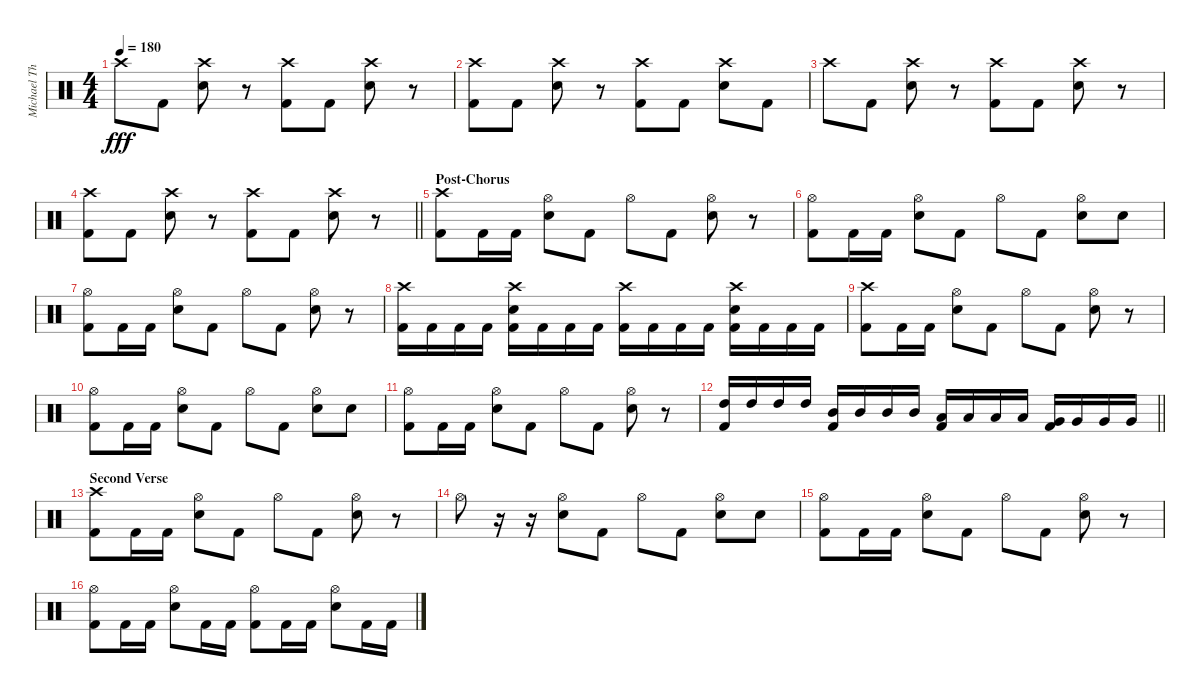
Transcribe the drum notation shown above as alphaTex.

\track ("Michael Thomas" "Michael Th") {instrument percussion}
\staff {score}
\articulation defaults
\ts (4 4)
\tempo 180
\clef neutral
\ks c "Crash high (hit)".8{dy fff} "Kick (hit) 2".8
("Crash high (hit)" "Electric Snare (hit)").8 r.8 ("Crash high (hit)" "Kick (hit) 2").8 "Kick (hit) 2".8 ("Crash high (hit)" "Electric Snare (hit)").8 r.8 |
("Crash high (hit)" "Kick (hit) 2").8 "Kick (hit) 2".8 ("Crash high (hit)" "Electric Snare (hit)").8 r.8 ("Crash high (hit)" "Kick (hit) 2").8 "Kick (hit) 2".8 ("Crash high (hit)" "Electric Snare (hit)").8 "Kick (hit) 2".8 |
"Crash high (hit)".8 "Kick (hit) 2".8 ("Crash high (hit)" "Electric Snare (hit)").8 r.8 ("Crash high (hit)" "Kick (hit) 2").8 "Kick (hit) 2".8 ("Crash high (hit)" "Electric Snare (hit)").8 r.8 |
\barLineRight lightlight
("Crash high (hit)" "Kick (hit) 2").8 "Kick (hit) 2".8 ("Crash high (hit)" "Electric Snare (hit)").8 r.8 ("Crash high (hit)" "Kick (hit) 2").8 "Kick (hit) 2".8 ("Crash high (hit)" "Electric Snare (hit)").8 r.8 |
\section ("" "Post-Chorus")
("Crash high (hit)" "Kick (hit) 2").8 "Kick (hit) 2".16 "Kick (hit) 2".16 ("Hi-Hat (open)" "Electric Snare (hit)").8 "Kick (hit) 2".8 "Hi-Hat (open)".8 "Kick (hit) 2".8 ("Hi-Hat (open)" "Electric Snare (hit)").8 r.8 |
("Hi-Hat (open)" "Kick (hit) 2").8 "Kick (hit) 2".16 "Kick (hit) 2".16 ("Hi-Hat (open)" "Electric Snare (hit)").8 "Kick (hit) 2".8 "Hi-Hat (open)".8 "Kick (hit) 2".8 ("Hi-Hat (open)" "Electric Snare (hit)").8 "Electric Snare (hit)".8 |
("Hi-Hat (open)" "Kick (hit) 2").8 "Kick (hit) 2".16 "Kick (hit) 2".16 ("Hi-Hat (open)" "Electric Snare (hit)").8 "Kick (hit) 2".8 "Hi-Hat (open)".8 "Kick (hit) 2".8 ("Hi-Hat (open)" "Electric Snare (hit)").8 r.8 |
("Crash high (hit)" "Kick (hit) 2").16 "Kick (hit) 2".16 "Kick (hit) 2".16 "Kick (hit) 2".16 ("Crash high (hit)" "Electric Snare (hit)" "Kick (hit) 2").16 "Kick (hit) 2".16 "Kick (hit) 2".16 "Kick (hit) 2".16 ("Crash high (hit)" "Kick (hit) 2").16 "Kick (hit) 2".16 "Kick (hit) 2".16 "Kick (hit) 2".16 ("Crash high (hit)" "Electric Snare (hit)" "Kick (hit) 2").16 "Kick (hit) 2".16 "Kick (hit) 2".16 "Kick (hit) 2".16 |
("Crash high (hit)" "Kick (hit) 2").8 "Kick (hit) 2".16 "Kick (hit) 2".16 ("Hi-Hat (open)" "Electric Snare (hit)").8 "Kick (hit) 2".8 "Hi-Hat (open)".8 "Kick (hit) 2".8 ("Hi-Hat (open)" "Electric Snare (hit)").8 r.8 |
("Hi-Hat (open)" "Kick (hit) 2").8 "Kick (hit) 2".16 "Kick (hit) 2".16 ("Hi-Hat (open)" "Electric Snare (hit)").8 "Kick (hit) 2".8 "Hi-Hat (open)".8 "Kick (hit) 2".8 ("Hi-Hat (open)" "Electric Snare (hit)").8 "Electric Snare (hit)".8 |
("Hi-Hat (open)" "Kick (hit) 2").8 "Kick (hit) 2".16 "Kick (hit) 2".16 ("Hi-Hat (open)" "Electric Snare (hit)").8 "Kick (hit) 2".8 "Hi-Hat (open)".8 "Kick (hit) 2".8 ("Hi-Hat (open)" "Electric Snare (hit)").8 r.8 |
\barLineRight lightlight
("High Tom (hit)" "Kick (hit) 2").16 "High Tom (hit)".16 "High Tom (hit)".16 "High Tom (hit)".16 ("Mid Tom (hit)" "Kick (hit) 2").16 "Mid Tom (hit)".16 "Mid Tom (hit)".16 "Mid Tom (hit)".16 ("Low Tom (hit)" "Kick (hit) 2").16 "Low Tom (hit)".16 "Low Tom (hit)".16 "Low Tom (hit)".16 ("Very Low Tom (hit)" "Kick (hit) 2").16 "Very Low Tom (hit)".16 "Very Low Tom (hit)".16 "Very Low Tom (hit)".16 |
\section ("" "Second Verse")
("Crash high (hit)" "Kick (hit) 2").8 "Kick (hit) 2".16 "Kick (hit) 2".16 ("Hi-Hat (open)" "Electric Snare (hit)").8 "Kick (hit) 2".8 "Hi-Hat (open)".8 "Kick (hit) 2".8 ("Hi-Hat (open)" "Electric Snare (hit)").8 r.8 |
"Hi-Hat (open)".8 r.16 r.16 ("Hi-Hat (open)" "Electric Snare (hit)").8 "Kick (hit) 2".8 "Hi-Hat (open)".8 "Kick (hit) 2".8 ("Hi-Hat (open)" "Electric Snare (hit)").8 "Electric Snare (hit)".8 |
("Hi-Hat (open)" "Kick (hit) 2").8 "Kick (hit) 2".16 "Kick (hit) 2".16 ("Hi-Hat (open)" "Electric Snare (hit)").8 "Kick (hit) 2".8 "Hi-Hat (open)".8 "Kick (hit) 2".8 ("Hi-Hat (open)" "Electric Snare (hit)").8 r.8 |
("Hi-Hat (open)" "Kick (hit) 2").8 "Kick (hit) 2".16 "Kick (hit) 2".16 ("Hi-Hat (open)" "Electric Snare (hit)").8 "Kick (hit) 2".16 "Kick (hit) 2".16 ("Hi-Hat (open)" "Kick (hit) 2").8 "Kick (hit) 2".16 "Kick (hit) 2".16 ("Hi-Hat (open)" "Electric Snare (hit)").8 "Kick (hit) 2".16 "Kick (hit) 2".16
